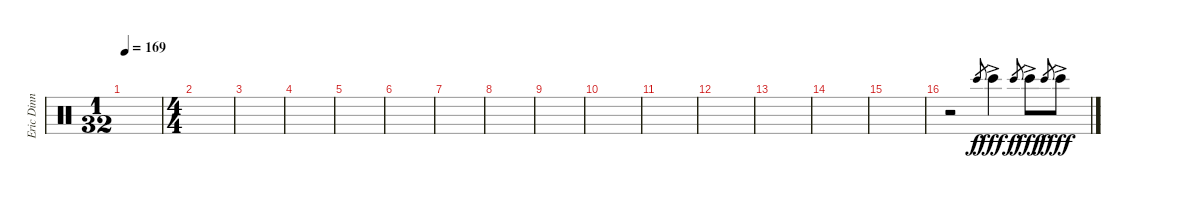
\track ("Eric Dinn" "Eric Dinn") {instrument percussion}
\staff {score}
\articulation defaults
\ts (1 32)
\tempo 169
\clef neutral
\ks c
|
\ts (4 4)
|
|
|
|
|
|
|
|
|
|
|
|
|
|
r.2 "Bongo High (hit)".8{gr} "Bongo High (hit)"{ac}.4{dy fff} "Bongo High (hit)".8{gr dy f} "Bongo High (hit)"{ac}.8{dy fff} "Bongo High (hit)".8{gr dy f} "Bongo High (hit)"{ac}.8{dy fff}
